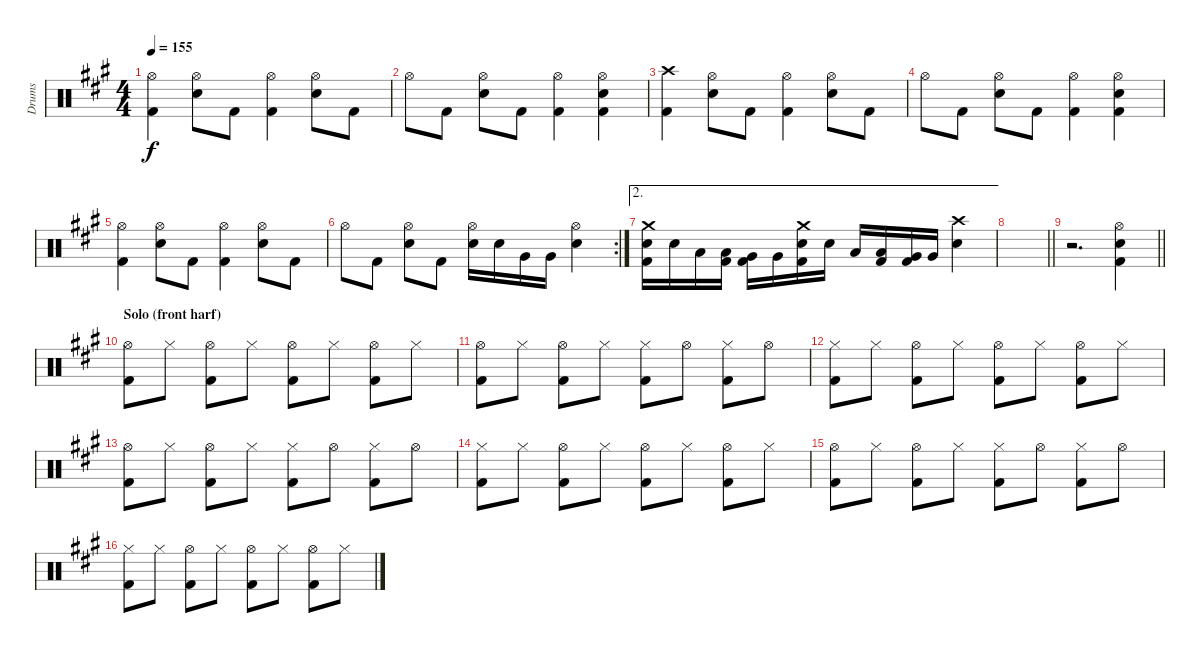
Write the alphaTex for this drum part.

\track ("Drums" "Drums") {instrument percussion}
\staff {score}
\articulation defaults
\ts (4 4)
\tempo 155
\clef neutral
\ks a
("Hi-Hat (open)" "Kick (hit) 2").4{dy f} ("Hi-Hat (open)" "Snare (hit) 2").8 "Kick (hit) 2".8 ("Hi-Hat (open)" "Kick (hit) 2").4 ("Hi-Hat (open)" "Snare (hit) 2").8 "Kick (hit) 2".8 |
"Hi-Hat (open)".8 "Kick (hit) 2".8 ("Hi-Hat (open)" "Snare (hit) 2").8 "Kick (hit) 2".8 ("Hi-Hat (open)" "Kick (hit) 2").4 ("Hi-Hat (open)" "Snare (hit) 2" "Kick (hit) 2").4 |
("Crash high (hit)" "Kick (hit) 2").4 ("Hi-Hat (open)" "Snare (hit) 2").8 "Kick (hit) 2".8 ("Hi-Hat (open)" "Kick (hit) 2").4 ("Hi-Hat (open)" "Snare (hit) 2").8 "Kick (hit) 2".8 |
"Hi-Hat (open)".8 "Kick (hit) 2".8 ("Hi-Hat (open)" "Snare (hit) 2").8 "Kick (hit) 2".8 ("Hi-Hat (open)" "Kick (hit) 2").4 ("Hi-Hat (open)" "Snare (hit) 2" "Kick (hit) 2").4 |
("Hi-Hat (open)" "Kick (hit) 2").4 ("Hi-Hat (open)" "Snare (hit) 2").8 "Kick (hit) 2".8 ("Hi-Hat (open)" "Kick (hit) 2").4 ("Hi-Hat (open)" "Snare (hit) 2").8 "Kick (hit) 2".8 |
\rc 2 "Hi-Hat (open)".8 "Kick (hit) 2".8
("Hi-Hat (open)" "Snare (hit) 2").8 "Kick (hit) 2".8 ("Hi-Hat (open)" "Snare (hit) 2").16 "Snare (hit) 2".16 "Very Low Tom (hit)".16 "Very Low Tom (hit)".16 ("Hi-Hat (open)" "Snare (hit) 2").4 |
\ae 2
("Crash medium (hit)" "Snare (hit) 2" "Kick (hit) 2").16 "Snare (hit) 2".16 "Low Tom (hit)".16 ("Low Tom (hit)" "Kick (hit) 2").16 ("Very Low Tom (hit)" "Kick (hit) 2").16 "Very Low Tom (hit)".16 ("Crash medium (hit)" "Snare (hit) 2" "Kick (hit) 2").16 "Snare (hit) 2".16 "Low Tom (hit)".16 ("Low Tom (hit)" "Kick (hit) 2").16 ("Very Low Tom (hit)" "Kick (hit) 2").16 "Very Low Tom (hit)".16 ("Crash high (hit)" "Snare (hit) 2").4 |
\barLineRight lightlight
|
\barLineRight lightlight
r.2{d} ("Hi-Hat (open)" "Snare (hit) 2" "Kick (hit) 2").4 |
\section ("" "Solo (front harf)")
("Hi-Hat (open)" "Kick (hit) 2").8 "Hi-Hat (closed)".8 ("Hi-Hat (open)" "Kick (hit) 2").8 "Hi-Hat (closed)".8 ("Hi-Hat (open)" "Kick (hit) 2").8 "Hi-Hat (closed)".8 ("Hi-Hat (open)" "Kick (hit) 2").8 "Hi-Hat (closed)".8 |
("Hi-Hat (open)" "Kick (hit) 2").8 "Hi-Hat (closed)".8 ("Hi-Hat (open)" "Kick (hit) 2").8 "Hi-Hat (closed)".8 ("Hi-Hat (closed)" "Kick (hit) 2").8 "Hi-Hat (open)".8 ("Hi-Hat (closed)" "Kick (hit) 2").8 "Hi-Hat (open)".8 |
("Hi-Hat (closed)" "Kick (hit) 2").8 "Hi-Hat (closed)".8 ("Hi-Hat (open)" "Kick (hit) 2").8 "Hi-Hat (closed)".8 ("Hi-Hat (open)" "Kick (hit) 2").8 "Hi-Hat (closed)".8 ("Hi-Hat (open)" "Kick (hit) 2").8 "Hi-Hat (closed)".8 |
("Hi-Hat (open)" "Kick (hit) 2").8 "Hi-Hat (closed)".8 ("Hi-Hat (open)" "Kick (hit) 2").8 "Hi-Hat (closed)".8 ("Hi-Hat (closed)" "Kick (hit) 2").8 "Hi-Hat (open)".8 ("Hi-Hat (closed)" "Kick (hit) 2").8 "Hi-Hat (open)".8 |
("Hi-Hat (closed)" "Kick (hit) 2").8 "Hi-Hat (closed)".8 ("Hi-Hat (open)" "Kick (hit) 2").8 "Hi-Hat (closed)".8 ("Hi-Hat (open)" "Kick (hit) 2").8 "Hi-Hat (closed)".8 ("Hi-Hat (open)" "Kick (hit) 2").8 "Hi-Hat (closed)".8 |
("Hi-Hat (open)" "Kick (hit) 2").8 "Hi-Hat (closed)".8 ("Hi-Hat (open)" "Kick (hit) 2").8 "Hi-Hat (closed)".8 ("Hi-Hat (closed)" "Kick (hit) 2").8 "Hi-Hat (open)".8 ("Hi-Hat (closed)" "Kick (hit) 2").8 "Hi-Hat (open)".8 |
("Hi-Hat (closed)" "Kick (hit) 2").8 "Hi-Hat (closed)".8 ("Hi-Hat (open)" "Kick (hit) 2").8 "Hi-Hat (closed)".8 ("Hi-Hat (open)" "Kick (hit) 2").8 "Hi-Hat (closed)".8 ("Hi-Hat (open)" "Kick (hit) 2").8 "Hi-Hat (closed)".8
